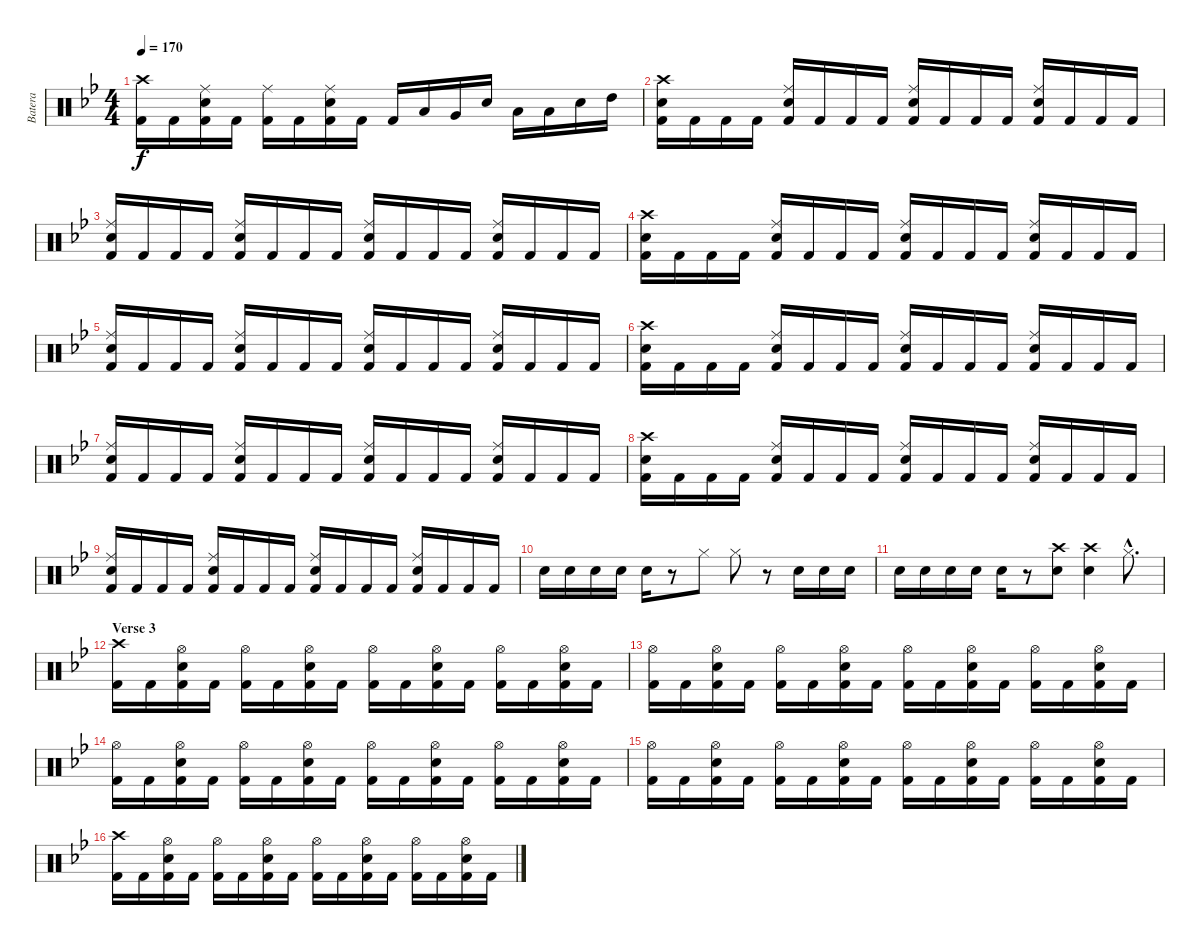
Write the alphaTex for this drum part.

\track ("Batera" "Batera") {instrument percussion}
\staff {score}
\articulation defaults
\ts (4 4)
\tempo 170
\clef neutral
\ks bb
("Crash high (hit)" "Kick (hit) 2").16{dy f} "Kick (hit) 2".16 ("Ride (middle)" "Electric Snare (hit)" "Kick (hit) 2").16 "Kick (hit) 2".16 ("Ride (middle)" "Kick (hit) 2").16 "Kick (hit) 2".16 ("Ride (middle)" "Electric Snare (hit)" "Kick (hit) 2").16 "Kick (hit) 2".16 "Kick (hit) 2".16 "Low Floor Tom (hit)".16 "Very Low Tom (hit)".16 "Electric Snare (hit)".16 "Low Floor Tom (hit)".16 "Low Tom (hit)".16 "Electric Snare (hit)".16 "High Tom (hit)".16 |
("Crash high (hit)" "Electric Snare (hit)" "Kick (hit) 2").16 "Kick (hit) 2".16 "Kick (hit) 2".16 "Kick (hit) 2".16 ("Ride (middle)" "Electric Snare (hit)" "Kick (hit) 2").16 "Kick (hit) 2".16 "Kick (hit) 2".16 "Kick (hit) 2".16 ("Ride (middle)" "Electric Snare (hit)" "Kick (hit) 2").16 "Kick (hit) 2".16 "Kick (hit) 2".16 "Kick (hit) 2".16 ("Ride (middle)" "Electric Snare (hit)" "Kick (hit) 2").16 "Kick (hit) 2".16 "Kick (hit) 2".16 "Kick (hit) 2".16 |
("Ride (middle)" "Electric Snare (hit)" "Kick (hit) 2").16 "Kick (hit) 2".16 "Kick (hit) 2".16 "Kick (hit) 2".16 ("Ride (middle)" "Electric Snare (hit)" "Kick (hit) 2").16 "Kick (hit) 2".16 "Kick (hit) 2".16 "Kick (hit) 2".16 ("Ride (middle)" "Electric Snare (hit)" "Kick (hit) 2").16 "Kick (hit) 2".16 "Kick (hit) 2".16 "Kick (hit) 2".16 ("Ride (middle)" "Electric Snare (hit)" "Kick (hit) 2").16 "Kick (hit) 2".16 "Kick (hit) 2".16 "Kick (hit) 2".16 |
("Crash high (hit)" "Electric Snare (hit)" "Kick (hit) 2").16 "Kick (hit) 2".16 "Kick (hit) 2".16 "Kick (hit) 2".16 ("Ride (middle)" "Electric Snare (hit)" "Kick (hit) 2").16 "Kick (hit) 2".16 "Kick (hit) 2".16 "Kick (hit) 2".16 ("Ride (middle)" "Electric Snare (hit)" "Kick (hit) 2").16 "Kick (hit) 2".16 "Kick (hit) 2".16 "Kick (hit) 2".16 ("Ride (middle)" "Electric Snare (hit)" "Kick (hit) 2").16 "Kick (hit) 2".16 "Kick (hit) 2".16 "Kick (hit) 2".16 |
("Ride (middle)" "Electric Snare (hit)" "Kick (hit) 2").16 "Kick (hit) 2".16 "Kick (hit) 2".16 "Kick (hit) 2".16 ("Ride (middle)" "Electric Snare (hit)" "Kick (hit) 2").16 "Kick (hit) 2".16 "Kick (hit) 2".16 "Kick (hit) 2".16 ("Ride (middle)" "Electric Snare (hit)" "Kick (hit) 2").16 "Kick (hit) 2".16 "Kick (hit) 2".16 "Kick (hit) 2".16 ("Ride (middle)" "Electric Snare (hit)" "Kick (hit) 2").16 "Kick (hit) 2".16 "Kick (hit) 2".16 "Kick (hit) 2".16 |
("Crash high (hit)" "Electric Snare (hit)" "Kick (hit) 2").16 "Kick (hit) 2".16 "Kick (hit) 2".16 "Kick (hit) 2".16 ("Ride (middle)" "Electric Snare (hit)" "Kick (hit) 2").16 "Kick (hit) 2".16 "Kick (hit) 2".16 "Kick (hit) 2".16 ("Ride (middle)" "Electric Snare (hit)" "Kick (hit) 2").16 "Kick (hit) 2".16 "Kick (hit) 2".16 "Kick (hit) 2".16 ("Ride (middle)" "Electric Snare (hit)" "Kick (hit) 2").16 "Kick (hit) 2".16 "Kick (hit) 2".16 "Kick (hit) 2".16 |
("Ride (middle)" "Electric Snare (hit)" "Kick (hit) 2").16 "Kick (hit) 2".16 "Kick (hit) 2".16 "Kick (hit) 2".16 ("Ride (middle)" "Electric Snare (hit)" "Kick (hit) 2").16 "Kick (hit) 2".16 "Kick (hit) 2".16 "Kick (hit) 2".16 ("Ride (middle)" "Electric Snare (hit)" "Kick (hit) 2").16 "Kick (hit) 2".16 "Kick (hit) 2".16 "Kick (hit) 2".16 ("Ride (middle)" "Electric Snare (hit)" "Kick (hit) 2").16 "Kick (hit) 2".16 "Kick (hit) 2".16 "Kick (hit) 2".16 |
("Crash high (hit)" "Electric Snare (hit)" "Kick (hit) 2").16 "Kick (hit) 2".16 "Kick (hit) 2".16 "Kick (hit) 2".16 ("Ride (middle)" "Electric Snare (hit)" "Kick (hit) 2").16 "Kick (hit) 2".16 "Kick (hit) 2".16 "Kick (hit) 2".16 ("Ride (middle)" "Electric Snare (hit)" "Kick (hit) 2").16 "Kick (hit) 2".16 "Kick (hit) 2".16 "Kick (hit) 2".16 ("Ride (middle)" "Electric Snare (hit)" "Kick (hit) 2").16 "Kick (hit) 2".16 "Kick (hit) 2".16 "Kick (hit) 2".16 |
("Ride (middle)" "Electric Snare (hit)" "Kick (hit) 2").16 "Kick (hit) 2".16 "Kick (hit) 2".16 "Kick (hit) 2".16 ("Ride (middle)" "Electric Snare (hit)" "Kick (hit) 2").16 "Kick (hit) 2".16 "Kick (hit) 2".16 "Kick (hit) 2".16 ("Ride (middle)" "Electric Snare (hit)" "Kick (hit) 2").16 "Kick (hit) 2".16 "Kick (hit) 2".16 "Kick (hit) 2".16 ("Ride (middle)" "Electric Snare (hit)" "Kick (hit) 2").16 "Kick (hit) 2".16 "Kick (hit) 2".16 "Kick (hit) 2".16 |
"Electric Snare (hit)".16 "Electric Snare (hit)".16 "Electric Snare (hit)".16 "Electric Snare (hit)".16 "Electric Snare (hit)".16 r.8 "Hi-Hat (closed)".8 "Hi-Hat (closed)".8 r.8 "Electric Snare (hit)".16 "Electric Snare (hit)".16 "Electric Snare (hit)".16 |
"Electric Snare (hit)".16 "Electric Snare (hit)".16 "Electric Snare (hit)".16 "Electric Snare (hit)".16 "Electric Snare (hit)".16 r.8 ("Crash high (hit)" "Electric Snare (hit)").8 ("Crash high (hit)" "Electric Snare (hit)").4 "Hi-Hat (closed)"{hac}.8{d} |
\section ("" "Verse 3")
("Crash high (hit)" "Kick (hit) 2").16 "Kick (hit) 2".16 ("Hi-Hat (open)" "Electric Snare (hit)" "Kick (hit) 2").16 "Kick (hit) 2".16 ("Hi-Hat (open)" "Kick (hit) 2").16 "Kick (hit) 2".16 ("Hi-Hat (open)" "Electric Snare (hit)" "Kick (hit) 2").16 "Kick (hit) 2".16 ("Hi-Hat (open)" "Kick (hit) 2").16 "Kick (hit) 2".16 ("Hi-Hat (open)" "Electric Snare (hit)" "Kick (hit) 2").16 "Kick (hit) 2".16 ("Hi-Hat (open)" "Kick (hit) 2").16 "Kick (hit) 2".16 ("Hi-Hat (open)" "Electric Snare (hit)" "Kick (hit) 2").16 "Kick (hit) 2".16 |
("Hi-Hat (open)" "Kick (hit) 2").16 "Kick (hit) 2".16 ("Hi-Hat (open)" "Electric Snare (hit)" "Kick (hit) 2").16 "Kick (hit) 2".16 ("Hi-Hat (open)" "Kick (hit) 2").16 "Kick (hit) 2".16 ("Hi-Hat (open)" "Electric Snare (hit)" "Kick (hit) 2").16 "Kick (hit) 2".16 ("Hi-Hat (open)" "Kick (hit) 2").16 "Kick (hit) 2".16 ("Hi-Hat (open)" "Electric Snare (hit)" "Kick (hit) 2").16 "Kick (hit) 2".16 ("Hi-Hat (open)" "Kick (hit) 2").16 "Kick (hit) 2".16 ("Hi-Hat (open)" "Electric Snare (hit)" "Kick (hit) 2").16 "Kick (hit) 2".16 |
("Hi-Hat (open)" "Kick (hit) 2").16 "Kick (hit) 2".16 ("Hi-Hat (open)" "Electric Snare (hit)" "Kick (hit) 2").16 "Kick (hit) 2".16 ("Hi-Hat (open)" "Kick (hit) 2").16 "Kick (hit) 2".16 ("Hi-Hat (open)" "Electric Snare (hit)" "Kick (hit) 2").16 "Kick (hit) 2".16 ("Hi-Hat (open)" "Kick (hit) 2").16 "Kick (hit) 2".16 ("Hi-Hat (open)" "Electric Snare (hit)" "Kick (hit) 2").16 "Kick (hit) 2".16 ("Hi-Hat (open)" "Kick (hit) 2").16 "Kick (hit) 2".16 ("Hi-Hat (open)" "Electric Snare (hit)" "Kick (hit) 2").16 "Kick (hit) 2".16 |
("Hi-Hat (open)" "Kick (hit) 2").16 "Kick (hit) 2".16 ("Hi-Hat (open)" "Electric Snare (hit)" "Kick (hit) 2").16 "Kick (hit) 2".16 ("Hi-Hat (open)" "Kick (hit) 2").16 "Kick (hit) 2".16 ("Hi-Hat (open)" "Electric Snare (hit)" "Kick (hit) 2").16 "Kick (hit) 2".16 ("Hi-Hat (open)" "Kick (hit) 2").16 "Kick (hit) 2".16 ("Hi-Hat (open)" "Electric Snare (hit)" "Kick (hit) 2").16 "Kick (hit) 2".16 ("Hi-Hat (open)" "Kick (hit) 2").16 "Kick (hit) 2".16 ("Hi-Hat (open)" "Electric Snare (hit)" "Kick (hit) 2").16 "Kick (hit) 2".16 |
("Crash high (hit)" "Kick (hit) 2").16 "Kick (hit) 2".16 ("Hi-Hat (open)" "Electric Snare (hit)" "Kick (hit) 2").16 "Kick (hit) 2".16 ("Hi-Hat (open)" "Kick (hit) 2").16 "Kick (hit) 2".16 ("Hi-Hat (open)" "Electric Snare (hit)" "Kick (hit) 2").16 "Kick (hit) 2".16 ("Hi-Hat (open)" "Kick (hit) 2").16 "Kick (hit) 2".16 ("Hi-Hat (open)" "Electric Snare (hit)" "Kick (hit) 2").16 "Kick (hit) 2".16 ("Hi-Hat (open)" "Kick (hit) 2").16 "Kick (hit) 2".16 ("Hi-Hat (open)" "Electric Snare (hit)" "Kick (hit) 2").16 "Kick (hit) 2".16
